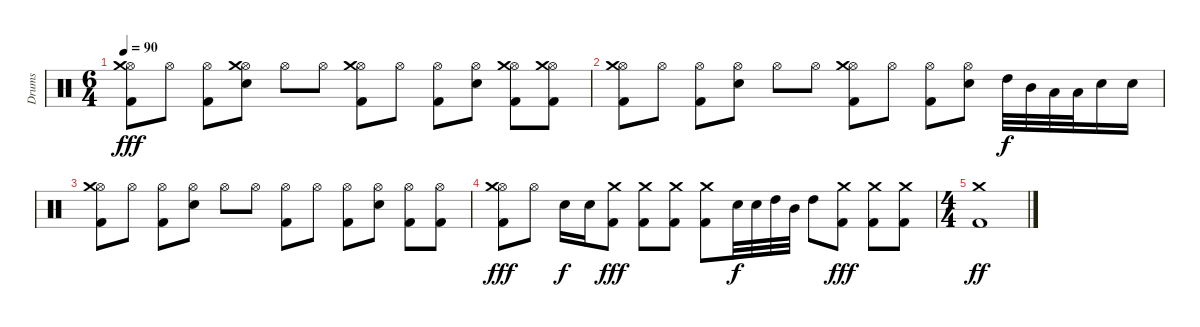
\track ("Drums" "Drums") {instrument percussion}
\staff {score}
\articulation defaults
\ts (6 4)
\tempo 90
\clef neutral
\ks c
("Hi-Hat (open)" "Kick (hit) 2" "Crash medium (hit)").8{dy fff} "Hi-Hat (open)".8 ("Hi-Hat (open)" "Kick (hit) 2").8 ("Hi-Hat (open)" "Electric Snare (hit)" "Crash medium (hit)").8 "Hi-Hat (open)".8 "Hi-Hat (open)".8 ("Hi-Hat (open)" "Kick (hit) 2" "Crash medium (hit)").8 "Hi-Hat (open)".8 ("Hi-Hat (open)" "Kick (hit) 2").8 ("Hi-Hat (open)" "Electric Snare (hit)").8 ("Hi-Hat (open)" "Kick (hit) 2" "Crash medium (hit)").8 ("Hi-Hat (open)" "Kick (hit) 2" "Crash medium (hit)").8 |
("Hi-Hat (open)" "Kick (hit) 2" "Crash medium (hit)").8 "Hi-Hat (open)".8 ("Hi-Hat (open)" "Kick (hit) 2").8 ("Hi-Hat (open)" "Electric Snare (hit)").8 "Hi-Hat (open)".8 "Hi-Hat (open)".8 ("Hi-Hat (open)" "Kick (hit) 2" "Crash medium (hit)").8 "Hi-Hat (open)".8 ("Hi-Hat (open)" "Kick (hit) 2").8 ("Hi-Hat (open)" "Electric Snare (hit)").8 "High Tom (hit)".32{dy f} "Mid Tom (hit)".32 "Low Tom (hit)".32 "Low Tom (hit)".32 "Electric Snare (hit)".16 "Electric Snare (hit)".16 |
("Hi-Hat (open)" "Kick (hit) 2" "Crash medium (hit)").8 "Hi-Hat (open)".8 ("Hi-Hat (open)" "Kick (hit) 2").8 ("Hi-Hat (open)" "Electric Snare (hit)").8 "Hi-Hat (open)".8 "Hi-Hat (open)".8 ("Hi-Hat (open)" "Kick (hit) 2").8 "Hi-Hat (open)".8 ("Hi-Hat (open)" "Kick (hit) 2").8 ("Hi-Hat (open)" "Electric Snare (hit)").8 ("Hi-Hat (open)" "Kick (hit) 2").8 ("Hi-Hat (open)" "Kick (hit) 2").8 |
("Hi-Hat (open)" "Kick (hit) 2" "Crash medium (hit)").8{dy fff} "Hi-Hat (open)".8 "Electric Snare (hit)".16{dy f} "Electric Snare (hit)".16 ("Kick (hit) 2" "Crash medium (hit)").8{dy fff} ("Kick (hit) 2" "Crash medium (hit)").8 ("Kick (hit) 2" "Crash medium (hit)").8 ("Kick (hit) 2" "Crash medium (hit)").8 "Electric Snare (hit)".32{dy f} "Electric Snare (hit)".32 "High Tom (hit)".32 "Mid Tom (hit)".32 "High Tom (hit)".8 ("Kick (hit) 2" "Crash medium (hit)").8{dy fff} ("Kick (hit) 2" "Crash medium (hit)").8 ("Kick (hit) 2" "Crash medium (hit)").8 |
\ts (4 4)
("Kick (hit) 2" "Crash medium (hit)").1{dy ff}
